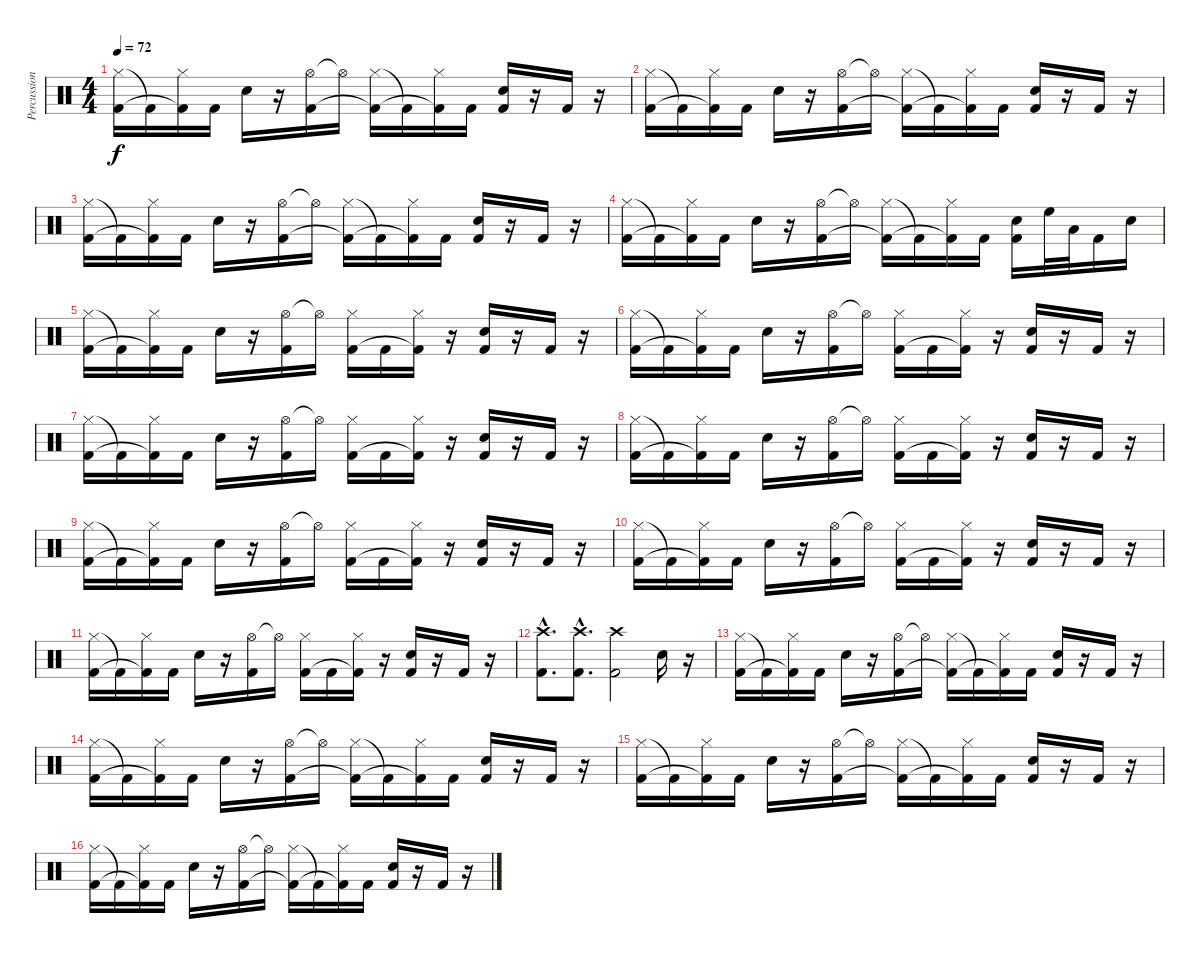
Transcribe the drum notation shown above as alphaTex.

\track ("Percussion" "Percussion") {instrument percussion}
\staff {score}
\articulation defaults
\ts (4 4)
\tempo 72
\clef neutral
\ks c
("Hi-Hat (closed)" "Kick (hit) 2").16{dy f} "Kick (hit) 2"{t}.16 ("Hi-Hat (closed)" "Kick (hit) 2"{t}).16 "Kick (hit) 2".16 "Snare (hit) 2".16 r.16 ("Hi-Hat (open)" "Kick (hit) 2").16 "Hi-Hat (open)"{t}.16 ("Hi-Hat (closed)" "Kick (hit) 2"{t}).16 "Kick (hit) 2"{t}.16 ("Hi-Hat (closed)" "Kick (hit) 2"{t}).16 "Kick (hit) 2".16 ("Snare (hit) 2" "Kick (hit) 2").16 r.16 "Kick (hit) 2".16 r.16 |
("Hi-Hat (closed)" "Kick (hit) 2").16 "Kick (hit) 2"{t}.16 ("Hi-Hat (closed)" "Kick (hit) 2"{t}).16 "Kick (hit) 2".16 "Snare (hit) 2".16 r.16 ("Hi-Hat (open)" "Kick (hit) 2").16 "Hi-Hat (open)"{t}.16 ("Hi-Hat (closed)" "Kick (hit) 2"{t}).16 "Kick (hit) 2"{t}.16 ("Hi-Hat (closed)" "Kick (hit) 2"{t}).16 "Kick (hit) 2".16 ("Snare (hit) 2" "Kick (hit) 2").16 r.16 "Kick (hit) 2".16 r.16 |
("Hi-Hat (closed)" "Kick (hit) 2").16 "Kick (hit) 2"{t}.16 ("Hi-Hat (closed)" "Kick (hit) 2"{t}).16 "Kick (hit) 2".16 "Snare (hit) 2".16 r.16 ("Hi-Hat (open)" "Kick (hit) 2").16 "Hi-Hat (open)"{t}.16 ("Hi-Hat (closed)" "Kick (hit) 2"{t}).16 "Kick (hit) 2"{t}.16 ("Hi-Hat (closed)" "Kick (hit) 2"{t}).16 "Kick (hit) 2".16 ("Snare (hit) 2" "Kick (hit) 2").16 r.16 "Kick (hit) 2".16 r.16 |
("Hi-Hat (closed)" "Kick (hit) 2").16 "Kick (hit) 2"{t}.16 ("Hi-Hat (closed)" "Kick (hit) 2"{t}).16 "Kick (hit) 2".16 "Snare (hit) 2".16 r.16 ("Hi-Hat (open)" "Kick (hit) 2").16 "Hi-Hat (open)"{t}.16 ("Hi-Hat (closed)" "Kick (hit) 2"{t}).16 "Kick (hit) 2"{t}.16 ("Hi-Hat (closed)" "Kick (hit) 2"{t}).16 "Kick (hit) 2".16 ("Snare (hit) 2" "Kick (hit) 2").16 "High Floor Tom (hit)".32 "Low Tom (hit)".32 "Kick (hit) 2".16 "Snare (hit) 2".16 |
("Hi-Hat (closed)" "Kick (hit) 2").16 "Kick (hit) 2"{t}.16 ("Hi-Hat (closed)" "Kick (hit) 2"{t}).16 "Kick (hit) 2".16 "Snare (hit) 2".16 r.16 ("Hi-Hat (open)" "Kick (hit) 2").16 "Hi-Hat (open)"{t}.16 ("Hi-Hat (closed)" "Kick (hit) 2").16 "Kick (hit) 2".16 ("Hi-Hat (closed)" "Kick (hit) 2"{t}).16 r.16 ("Snare (hit) 2" "Kick (hit) 2").16 r.16 "Kick (hit) 2".16 r.16 |
("Hi-Hat (closed)" "Kick (hit) 2").16 "Kick (hit) 2"{t}.16 ("Hi-Hat (closed)" "Kick (hit) 2"{t}).16 "Kick (hit) 2".16 "Snare (hit) 2".16 r.16 ("Hi-Hat (open)" "Kick (hit) 2").16 "Hi-Hat (open)"{t}.16 ("Hi-Hat (closed)" "Kick (hit) 2").16 "Kick (hit) 2".16 ("Hi-Hat (closed)" "Kick (hit) 2"{t}).16 r.16 ("Snare (hit) 2" "Kick (hit) 2").16 r.16 "Kick (hit) 2".16 r.16 |
("Hi-Hat (closed)" "Kick (hit) 2").16 "Kick (hit) 2"{t}.16 ("Hi-Hat (closed)" "Kick (hit) 2"{t}).16 "Kick (hit) 2".16 "Snare (hit) 2".16 r.16 ("Hi-Hat (open)" "Kick (hit) 2").16 "Hi-Hat (open)"{t}.16 ("Hi-Hat (closed)" "Kick (hit) 2").16 "Kick (hit) 2".16 ("Hi-Hat (closed)" "Kick (hit) 2"{t}).16 r.16 ("Snare (hit) 2" "Kick (hit) 2").16 r.16 "Kick (hit) 2".16 r.16 |
("Hi-Hat (closed)" "Kick (hit) 2").16 "Kick (hit) 2"{t}.16 ("Hi-Hat (closed)" "Kick (hit) 2"{t}).16 "Kick (hit) 2".16 "Snare (hit) 2".16 r.16 ("Hi-Hat (open)" "Kick (hit) 2").16 "Hi-Hat (open)"{t}.16 ("Hi-Hat (closed)" "Kick (hit) 2").16 "Kick (hit) 2".16 ("Hi-Hat (closed)" "Kick (hit) 2"{t}).16 r.16 ("Snare (hit) 2" "Kick (hit) 2").16 r.16 "Kick (hit) 2".16 r.16 |
("Hi-Hat (closed)" "Kick (hit) 2").16 "Kick (hit) 2"{t}.16 ("Hi-Hat (closed)" "Kick (hit) 2"{t}).16 "Kick (hit) 2".16 "Snare (hit) 2".16 r.16 ("Hi-Hat (open)" "Kick (hit) 2").16 "Hi-Hat (open)"{t}.16 ("Hi-Hat (closed)" "Kick (hit) 2").16 "Kick (hit) 2".16 ("Hi-Hat (closed)" "Kick (hit) 2"{t}).16 r.16 ("Snare (hit) 2" "Kick (hit) 2").16 r.16 "Kick (hit) 2".16 r.16 |
("Hi-Hat (closed)" "Kick (hit) 2").16 "Kick (hit) 2"{t}.16 ("Hi-Hat (closed)" "Kick (hit) 2"{t}).16 "Kick (hit) 2".16 "Snare (hit) 2".16 r.16 ("Hi-Hat (open)" "Kick (hit) 2").16 "Hi-Hat (open)"{t}.16 ("Hi-Hat (closed)" "Kick (hit) 2").16 "Kick (hit) 2".16 ("Hi-Hat (closed)" "Kick (hit) 2"{t}).16 r.16 ("Snare (hit) 2" "Kick (hit) 2").16 r.16 "Kick (hit) 2".16 r.16 |
("Hi-Hat (closed)" "Kick (hit) 2").16 "Kick (hit) 2"{t}.16 ("Hi-Hat (closed)" "Kick (hit) 2"{t}).16 "Kick (hit) 2".16 "Snare (hit) 2".16 r.16 ("Hi-Hat (open)" "Kick (hit) 2").16 "Hi-Hat (open)"{t}.16 ("Hi-Hat (closed)" "Kick (hit) 2").16 "Kick (hit) 2".16 ("Hi-Hat (closed)" "Kick (hit) 2"{t}).16 r.16 ("Snare (hit) 2" "Kick (hit) 2").16 r.16 "Kick (hit) 2".16 r.16 |
("Crash high (hit)"{hac} "Kick (hit) 2"{hac}).8{d} ("Crash high (hit)"{hac} "Kick (hit) 2"{hac}).8{d} ("Crash high (hit)" "Kick (hit) 2").2 "Snare (hit) 2".16 r.16 |
("Hi-Hat (closed)" "Kick (hit) 2").16 "Kick (hit) 2"{t}.16 ("Hi-Hat (closed)" "Kick (hit) 2"{t}).16 "Kick (hit) 2".16 "Snare (hit) 2".16 r.16 ("Hi-Hat (open)" "Kick (hit) 2").16 "Hi-Hat (open)"{t}.16 ("Hi-Hat (closed)" "Kick (hit) 2"{t}).16 "Kick (hit) 2"{t}.16 ("Hi-Hat (closed)" "Kick (hit) 2"{t}).16 "Kick (hit) 2".16 ("Snare (hit) 2" "Kick (hit) 2").16 r.16 "Kick (hit) 2".16 r.16 |
("Hi-Hat (closed)" "Kick (hit) 2").16 "Kick (hit) 2"{t}.16 ("Hi-Hat (closed)" "Kick (hit) 2"{t}).16 "Kick (hit) 2".16 "Snare (hit) 2".16 r.16 ("Hi-Hat (open)" "Kick (hit) 2").16 "Hi-Hat (open)"{t}.16 ("Hi-Hat (closed)" "Kick (hit) 2"{t}).16 "Kick (hit) 2"{t}.16 ("Hi-Hat (closed)" "Kick (hit) 2"{t}).16 "Kick (hit) 2".16 ("Snare (hit) 2" "Kick (hit) 2").16 r.16 "Kick (hit) 2".16 r.16 |
("Hi-Hat (closed)" "Kick (hit) 2").16 "Kick (hit) 2"{t}.16 ("Hi-Hat (closed)" "Kick (hit) 2"{t}).16 "Kick (hit) 2".16 "Snare (hit) 2".16 r.16 ("Hi-Hat (open)" "Kick (hit) 2").16 "Hi-Hat (open)"{t}.16 ("Hi-Hat (closed)" "Kick (hit) 2"{t}).16 "Kick (hit) 2"{t}.16 ("Hi-Hat (closed)" "Kick (hit) 2"{t}).16 "Kick (hit) 2".16 ("Snare (hit) 2" "Kick (hit) 2").16 r.16 "Kick (hit) 2".16 r.16 |
("Hi-Hat (closed)" "Kick (hit) 2").16 "Kick (hit) 2"{t}.16 ("Hi-Hat (closed)" "Kick (hit) 2"{t}).16 "Kick (hit) 2".16 "Snare (hit) 2".16 r.16 ("Hi-Hat (open)" "Kick (hit) 2").16 "Hi-Hat (open)"{t}.16 ("Hi-Hat (closed)" "Kick (hit) 2"{t}).16 "Kick (hit) 2"{t}.16 ("Hi-Hat (closed)" "Kick (hit) 2"{t}).16 "Kick (hit) 2".16 ("Snare (hit) 2" "Kick (hit) 2").16 r.16 "Kick (hit) 2".16 r.16
